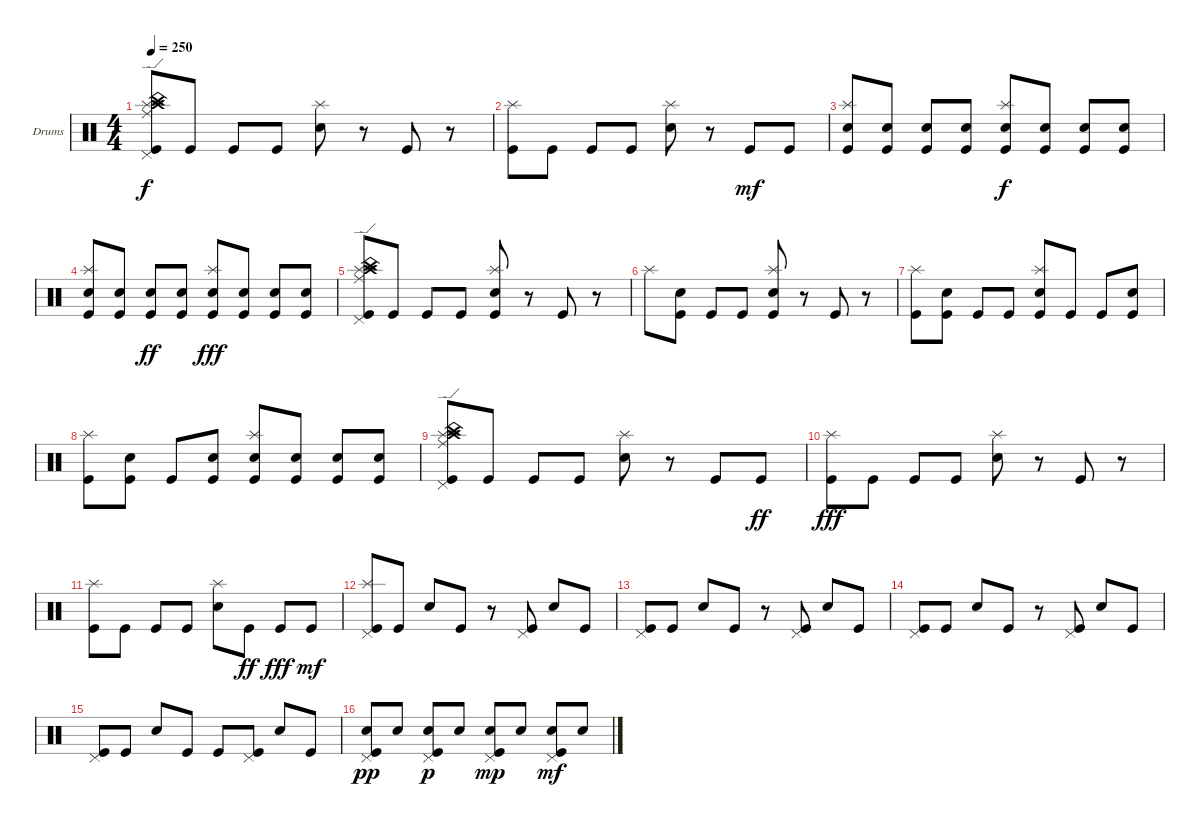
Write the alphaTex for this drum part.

\defaultSystemsLayout 4
\bracketExtendMode groupsimilarinstruments
\firstSystemTrackNameOrientation horizontal
\otherSystemsTrackNameOrientation horizontal
\track ("Драмки" "Drums") {instrument percussion}
\staff {score}
\articulation defaults
\ts (4 4)
\tempo 250
\clef neutral
\ks c
("Kick (hit)" "Splash (hit)" "Crash high (hit)" "China (hit)" "Ride (edge)" "Pedal Hi-Hat (hit)").8{dy f} "Kick (hit)".8 "Kick (hit)".8 "Kick (hit)".8 ("Snare (hit) 2" "Splash (hit)").8 r.8 "Kick (hit)".8 r.8 |
("Splash (hit)" "Kick (hit)").8 "Kick (hit)".8 "Kick (hit)".8 "Kick (hit)".8 ("Snare (hit) 2" "Splash (hit)").8 r.8 "Kick (hit)".8{dy mf} "Kick (hit)".8 |
("Kick (hit)" "Snare (hit) 2" "Splash (hit)").8 ("Kick (hit)" "Snare (hit) 2").8 ("Kick (hit)" "Snare (hit) 2").8 ("Kick (hit)" "Snare (hit) 2").8 ("Snare (hit) 2" "Kick (hit)" "Splash (hit)").8{dy f} ("Kick (hit)" "Snare (hit) 2").8 ("Kick (hit)" "Snare (hit) 2").8 ("Kick (hit)" "Snare (hit) 2").8 |
("Kick (hit)" "Snare (hit) 2" "Splash (hit)").8 ("Snare (hit) 2" "Kick (hit)").8 ("Snare (hit) 2" "Kick (hit)").8{dy ff} ("Kick (hit)" "Snare (hit) 2").8 ("Snare (hit) 2" "Kick (hit)" "Splash (hit)").8{dy fff} ("Snare (hit) 2" "Kick (hit)").8 ("Snare (hit) 2" "Kick (hit)").8 ("Snare (hit) 2" "Kick (hit)").8 |
("Kick (hit)" "Splash (hit)" "Crash high (hit)" "Ride (edge)" "China (hit)" "Pedal Hi-Hat (hit)").8 "Kick (hit)".8 "Kick (hit)".8 "Kick (hit)".8 ("Kick (hit)" "Splash (hit)" "Snare (hit) 2").8 r.8 "Kick (hit)".8 r.8 |
"Splash (hit)".8 ("Snare (hit) 2" "Kick (hit)").8 "Kick (hit)".8 "Kick (hit)".8 ("Snare (hit) 2" "Splash (hit)" "Kick (hit)").8 r.8 "Kick (hit)".8 r.8 |
("Splash (hit)" "Kick (hit)").8 ("Snare (hit) 2" "Kick (hit)").8 "Kick (hit)".8 "Kick (hit)".8 ("Splash (hit)" "Snare (hit) 2" "Kick (hit)").8 "Kick (hit)".8 "Kick (hit)".8 ("Snare (hit) 2" "Kick (hit)").8 |
("Splash (hit)" "Kick (hit)").8 ("Snare (hit) 2" "Kick (hit)").8 "Kick (hit)".8 ("Snare (hit) 2" "Kick (hit)").8 ("Snare (hit) 2" "Splash (hit)" "Kick (hit)").8 ("Snare (hit) 2" "Kick (hit)").8 ("Snare (hit) 2" "Kick (hit)").8 ("Snare (hit) 2" "Kick (hit)").8 |
("Kick (hit)" "Splash (hit)" "Crash high (hit)" "Ride (edge)" "Pedal Hi-Hat (hit)" "China (hit)").8 "Kick (hit)".8 "Kick (hit)".8 "Kick (hit)".8 ("Snare (hit) 2" "Splash (hit)").8 r.8 "Kick (hit)".8 "Kick (hit)".8{dy ff} |
("Splash (hit)" "Kick (hit)").8{dy fff} "Kick (hit)".8 "Kick (hit)".8 "Kick (hit)".8 ("Snare (hit) 2" "Splash (hit)").8 r.8 "Kick (hit)".8 r.8 |
("Kick (hit)" "Splash (hit)").8 "Kick (hit)".8 "Kick (hit)".8 "Kick (hit)".8 ("Snare (hit) 2" "Splash (hit)").8 "Kick (hit)".8{dy ff} "Kick (hit)".8{dy fff} "Kick (hit)".8{dy mf} |
("Splash (hit)" "Kick (hit)" "Pedal Hi-Hat (hit)").8 "Kick (hit)".8 "Snare (hit) 2".8 "Kick (hit)".8 r.8 ("Kick (hit)" "Pedal Hi-Hat (hit)").8 "Snare (hit) 2".8 "Kick (hit)".8 |
("Kick (hit)" "Pedal Hi-Hat (hit)").8 "Kick (hit)".8 "Snare (hit) 2".8 "Kick (hit)".8 r.8 ("Kick (hit)" "Pedal Hi-Hat (hit)").8 "Snare (hit) 2".8 "Kick (hit)".8 |
("Kick (hit)" "Pedal Hi-Hat (hit)").8 "Kick (hit)".8 "Snare (hit) 2".8 "Kick (hit)".8 r.8 ("Kick (hit)" "Pedal Hi-Hat (hit)").8 "Snare (hit) 2".8 "Kick (hit)".8 |
("Kick (hit)" "Pedal Hi-Hat (hit)").8 "Kick (hit)".8 "Snare (hit) 2".8 "Kick (hit)".8 "Kick (hit)".8 ("Kick (hit)" "Pedal Hi-Hat (hit)").8 "Snare (hit) 2".8 "Kick (hit)".8 |
("Snare (hit) 2" "Kick (hit)" "Pedal Hi-Hat (hit)").8{dy pp} "Snare (hit) 2".8 ("Snare (hit) 2" "Kick (hit)" "Pedal Hi-Hat (hit)").8{dy p} "Snare (hit) 2".8 ("Snare (hit) 2" "Kick (hit)" "Pedal Hi-Hat (hit)").8{dy mp} "Snare (hit) 2".8 ("Snare (hit) 2" "Kick (hit)" "Pedal Hi-Hat (hit)").8{dy mf} "Snare (hit) 2".8
